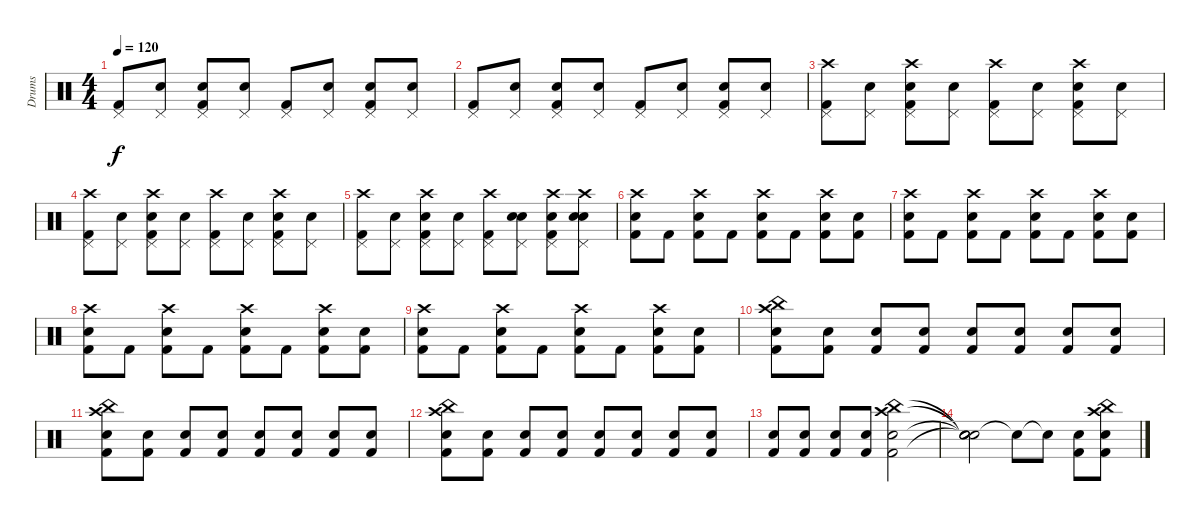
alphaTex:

\track ("Drums" "Drums") {instrument percussion}
\staff {score}
\articulation defaults
\ts (4 4)
\tempo 120
\clef neutral
\ks c
("Pedal Hi-Hat (hit)" "Kick (hit) 2").8{dy f} ("Pedal Hi-Hat (hit)" "Snare (hit)").8 ("Pedal Hi-Hat (hit)" "Snare (hit) 2" "Kick (hit) 2").8 ("Pedal Hi-Hat (hit)" "Snare (hit)").8 ("Pedal Hi-Hat (hit)" "Kick (hit) 2").8 ("Pedal Hi-Hat (hit)" "Snare (hit)").8 ("Pedal Hi-Hat (hit)" "Snare (hit) 2" "Kick (hit) 2").8 ("Pedal Hi-Hat (hit)" "Snare (hit)").8 |
("Pedal Hi-Hat (hit)" "Kick (hit) 2").8 ("Pedal Hi-Hat (hit)" "Snare (hit)").8 ("Pedal Hi-Hat (hit)" "Snare (hit) 2" "Kick (hit) 2").8 ("Pedal Hi-Hat (hit)" "Snare (hit)").8 ("Pedal Hi-Hat (hit)" "Kick (hit) 2").8 ("Pedal Hi-Hat (hit)" "Snare (hit)").8 ("Pedal Hi-Hat (hit)" "Snare (hit) 2" "Kick (hit) 2").8 ("Pedal Hi-Hat (hit)" "Snare (hit)").8 |
("Crash high (hit)" "Pedal Hi-Hat (hit)" "Kick (hit) 2").8 ("Pedal Hi-Hat (hit)" "Snare (hit)").8 ("Crash high (hit)" "Pedal Hi-Hat (hit)" "Snare (hit) 2" "Kick (hit) 2").8 ("Pedal Hi-Hat (hit)" "Snare (hit)").8 ("Crash high (hit)" "Pedal Hi-Hat (hit)" "Kick (hit) 2").8 ("Pedal Hi-Hat (hit)" "Snare (hit)").8 ("Crash high (hit)" "Pedal Hi-Hat (hit)" "Snare (hit) 2" "Kick (hit) 2").8 ("Pedal Hi-Hat (hit)" "Snare (hit)").8 |
("Crash high (hit)" "Pedal Hi-Hat (hit)" "Kick (hit) 2").8 ("Pedal Hi-Hat (hit)" "Snare (hit)").8 ("Crash high (hit)" "Pedal Hi-Hat (hit)" "Snare (hit) 2" "Kick (hit) 2").8 ("Pedal Hi-Hat (hit)" "Snare (hit)").8 ("Crash high (hit)" "Pedal Hi-Hat (hit)" "Kick (hit) 2").8 ("Pedal Hi-Hat (hit)" "Snare (hit)").8 ("Crash high (hit)" "Pedal Hi-Hat (hit)" "Snare (hit) 2" "Kick (hit) 2").8 ("Pedal Hi-Hat (hit)" "Snare (hit)").8 |
("Crash high (hit)" "Pedal Hi-Hat (hit)" "Kick (hit) 2").8 ("Pedal Hi-Hat (hit)" "Snare (hit)").8 ("Crash high (hit)" "Pedal Hi-Hat (hit)" "Snare (hit) 2" "Kick (hit) 2").8 ("Pedal Hi-Hat (hit)" "Snare (hit)").8 ("Crash high (hit)" "Pedal Hi-Hat (hit)" "Kick (hit) 2").8 ("Pedal Hi-Hat (hit)" "Snare (hit) 2" "Snare (hit)").8 ("Crash high (hit)" "Pedal Hi-Hat (hit)" "Snare (hit) 2" "Kick (hit) 2").8 ("Crash high (hit)" "Pedal Hi-Hat (hit)" "Snare (hit) 2" "Snare (hit)").8 |
("Crash high (hit)" "Snare (hit) 2" "Kick (hit) 2").8 "Kick (hit) 2".8 ("Crash high (hit)" "Snare (hit) 2" "Kick (hit) 2").8 "Kick (hit) 2".8 ("Crash high (hit)" "Snare (hit) 2" "Kick (hit) 2").8 "Kick (hit) 2".8 ("Crash high (hit)" "Snare (hit) 2" "Kick (hit) 2").8 ("Snare (hit) 2" "Kick (hit) 2").8 |
("Crash high (hit)" "Snare (hit) 2" "Kick (hit) 2").8 "Kick (hit) 2".8 ("Crash high (hit)" "Snare (hit) 2" "Kick (hit) 2").8 "Kick (hit) 2".8 ("Crash high (hit)" "Snare (hit) 2" "Kick (hit) 2").8 "Kick (hit) 2".8 ("Crash high (hit)" "Snare (hit) 2" "Kick (hit) 2").8 ("Snare (hit) 2" "Kick (hit) 2").8 |
("Crash high (hit)" "Snare (hit) 2" "Kick (hit) 2").8 "Kick (hit) 2".8 ("Crash high (hit)" "Snare (hit) 2" "Kick (hit) 2").8 "Kick (hit) 2".8 ("Crash high (hit)" "Snare (hit) 2" "Kick (hit) 2").8 "Kick (hit) 2".8 ("Crash high (hit)" "Snare (hit) 2" "Kick (hit) 2").8 ("Snare (hit) 2" "Kick (hit) 2").8 |
("Crash high (hit)" "Snare (hit) 2" "Kick (hit) 2").8 "Kick (hit) 2".8 ("Crash high (hit)" "Snare (hit) 2" "Kick (hit) 2").8 "Kick (hit) 2".8 ("Crash high (hit)" "Snare (hit) 2" "Kick (hit) 2").8 "Kick (hit) 2".8 ("Crash high (hit)" "Snare (hit) 2" "Kick (hit) 2").8 ("Snare (hit) 2" "Kick (hit) 2").8 |
("China (hit)" "Crash high (hit)" "Snare (hit) 2" "Kick (hit) 2").8 ("Snare (hit) 2" "Kick (hit) 2").8{volume 4} ("Snare (hit) 2" "Kick (hit) 2").8{volume 6} ("Snare (hit) 2" "Kick (hit) 2").8{volume 8} ("Snare (hit) 2" "Kick (hit) 2").8{volume 10} ("Snare (hit) 2" "Kick (hit) 2").8{volume 12} ("Snare (hit) 2" "Kick (hit) 2").8{volume 14} ("Snare (hit) 2" "Kick (hit) 2").8{volume 16} |
("China (hit)" "Crash high (hit)" "Snare (hit) 2" "Kick (hit) 2").8 ("Snare (hit) 2" "Kick (hit) 2").8{volume 4} ("Snare (hit) 2" "Kick (hit) 2").8{volume 6} ("Snare (hit) 2" "Kick (hit) 2").8{volume 8} ("Snare (hit) 2" "Kick (hit) 2").8{volume 10} ("Snare (hit) 2" "Kick (hit) 2").8{volume 12} ("Snare (hit) 2" "Kick (hit) 2").8{volume 14} ("Snare (hit) 2" "Kick (hit) 2").8{volume 16} |
("China (hit)" "Crash high (hit)" "Snare (hit) 2" "Kick (hit) 2").8 ("Snare (hit) 2" "Kick (hit) 2").8{volume 4} ("Snare (hit) 2" "Kick (hit) 2").8{volume 6} ("Snare (hit) 2" "Kick (hit) 2").8{volume 8} ("Snare (hit) 2" "Kick (hit) 2").8{volume 10} ("Snare (hit) 2" "Kick (hit) 2").8{volume 12} ("Snare (hit) 2" "Kick (hit) 2").8{volume 14} ("Snare (hit) 2" "Kick (hit) 2").8{volume 16} |
("Snare (hit) 2" "Kick (hit) 2").8{volume 8} ("Snare (hit) 2" "Kick (hit) 2").8{volume 10} ("Snare (hit) 2" "Kick (hit) 2").8{volume 12} ("Snare (hit) 2" "Kick (hit) 2").8{volume 14} ("China (hit)" "Crash high (hit)" "Snare (hit) 2" "Kick (hit) 2").2{volume 16} |
("Snare (hit)"{t} "Snare (hit)"{t} "Snare (hit)"{t} "Snare (hit)"{t}).2 "Snare (hit)"{t}.8 "Snare (hit)"{t}.8 ("Snare (hit) 2" "Kick (hit) 2").8 ("Crash high (hit)" "China (hit)" "Snare (hit) 2" "Kick (hit) 2").8
